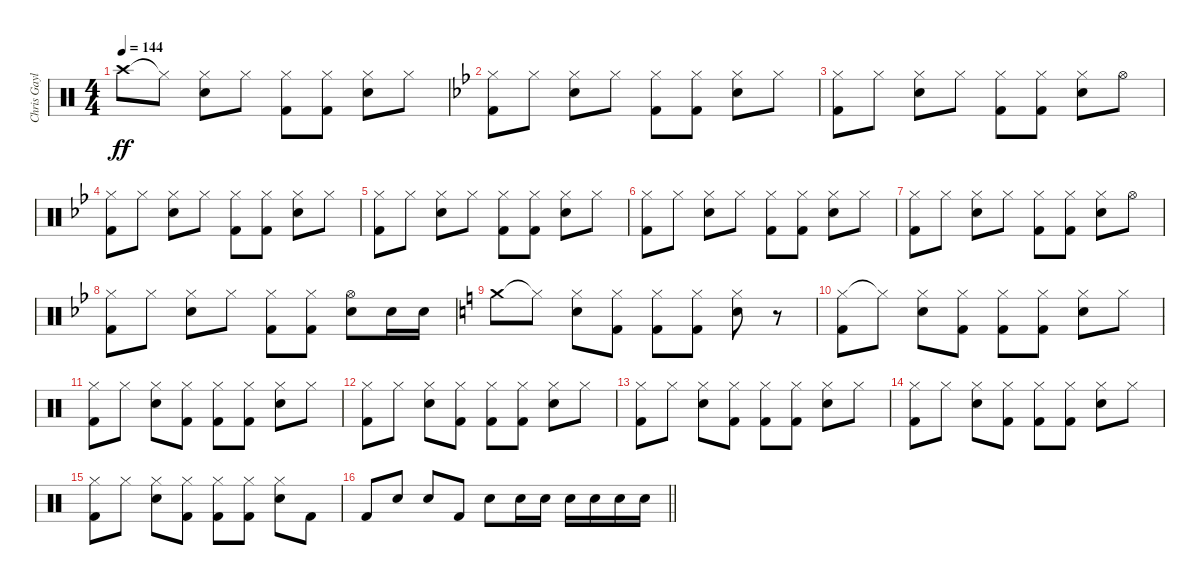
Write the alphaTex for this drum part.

\track ("Chris Gaylor" "Chris Gayl") {instrument percussion}
\staff {score}
\articulation defaults
\ts (4 4)
\tempo 144
\clef neutral
\ks c "Crash high (hit)".8{dy ff} "Hi-Hat (closed)"{t}.8
("Hi-Hat (closed)" "Snare (hit) 2").8 "Hi-Hat (closed)".8 ("Hi-Hat (closed)" "Kick (hit) 2").8 ("Hi-Hat (closed)" "Kick (hit) 2").8 ("Hi-Hat (closed)" "Snare (hit) 2").8 "Hi-Hat (closed)".8 |
\ks bb
("Hi-Hat (closed)" "Kick (hit) 2").8 "Hi-Hat (closed)".8 ("Hi-Hat (closed)" "Snare (hit) 2").8 "Hi-Hat (closed)".8 ("Hi-Hat (closed)" "Kick (hit) 2").8 ("Hi-Hat (closed)" "Kick (hit) 2").8 ("Hi-Hat (closed)" "Snare (hit) 2").8 "Hi-Hat (closed)".8 |
("Hi-Hat (closed)" "Kick (hit) 2").8 "Hi-Hat (closed)".8 ("Hi-Hat (closed)" "Snare (hit) 2").8 "Hi-Hat (closed)".8 ("Hi-Hat (closed)" "Kick (hit) 2").8 ("Hi-Hat (closed)" "Kick (hit) 2").8 ("Hi-Hat (closed)" "Snare (hit) 2").8 "Hi-Hat (open)".8 |
("Hi-Hat (closed)" "Kick (hit) 2").8 "Hi-Hat (closed)".8 ("Hi-Hat (closed)" "Snare (hit) 2").8 "Hi-Hat (closed)".8 ("Hi-Hat (closed)" "Kick (hit) 2").8 ("Hi-Hat (closed)" "Kick (hit) 2").8 ("Hi-Hat (closed)" "Snare (hit) 2").8 "Hi-Hat (closed)".8 |
("Hi-Hat (closed)" "Kick (hit) 2").8 "Hi-Hat (closed)".8 ("Hi-Hat (closed)" "Snare (hit) 2").8 "Hi-Hat (closed)".8 ("Hi-Hat (closed)" "Kick (hit) 2").8 ("Hi-Hat (closed)" "Kick (hit) 2").8 ("Hi-Hat (closed)" "Snare (hit) 2").8 "Hi-Hat (closed)".8 |
("Hi-Hat (closed)" "Kick (hit) 2").8 "Hi-Hat (closed)".8 ("Hi-Hat (closed)" "Snare (hit) 2").8 "Hi-Hat (closed)".8 ("Hi-Hat (closed)" "Kick (hit) 2").8 ("Hi-Hat (closed)" "Kick (hit) 2").8 ("Hi-Hat (closed)" "Snare (hit) 2").8 "Hi-Hat (closed)".8 |
("Hi-Hat (closed)" "Kick (hit) 2").8 "Hi-Hat (closed)".8 ("Hi-Hat (closed)" "Snare (hit) 2").8 "Hi-Hat (closed)".8 ("Hi-Hat (closed)" "Kick (hit) 2").8 ("Hi-Hat (closed)" "Kick (hit) 2").8 ("Hi-Hat (closed)" "Snare (hit) 2").8 "Hi-Hat (open)".8 |
("Hi-Hat (closed)" "Kick (hit) 2").8 "Hi-Hat (closed)".8 ("Hi-Hat (closed)" "Snare (hit) 2").8 "Hi-Hat (closed)".8 ("Hi-Hat (closed)" "Kick (hit) 2").8 ("Hi-Hat (closed)" "Kick (hit) 2").8 ("Hi-Hat (open)" "Snare (hit) 2").8 "Electric Snare (hit)".16 "Electric Snare (hit)".16 |
\ks c "Crash medium (hit)".8 "Hi-Hat (closed)"{t}.8
("Hi-Hat (closed)" "Snare (hit) 2").8 ("Hi-Hat (closed)" "Kick (hit) 2").8 ("Hi-Hat (closed)" "Kick (hit) 2").8 ("Hi-Hat (closed)" "Kick (hit) 2").8 ("Hi-Hat (closed)" "Snare (hit) 2").8 r.8 |
("Hi-Hat (closed)" "Kick (hit) 2").8 "Hi-Hat (closed)"{t}.8 ("Hi-Hat (closed)" "Snare (hit) 2").8 ("Hi-Hat (closed)" "Kick (hit) 2").8 ("Hi-Hat (closed)" "Kick (hit) 2").8 ("Hi-Hat (closed)" "Kick (hit) 2").8 ("Hi-Hat (closed)" "Snare (hit) 2").8 "Hi-Hat (closed)".8 |
("Hi-Hat (closed)" "Kick (hit) 2").8 "Hi-Hat (closed)".8 ("Hi-Hat (closed)" "Snare (hit) 2").8 ("Hi-Hat (closed)" "Kick (hit) 2").8 ("Hi-Hat (closed)" "Kick (hit) 2").8 ("Hi-Hat (closed)" "Kick (hit) 2").8 ("Hi-Hat (closed)" "Snare (hit) 2").8 "Hi-Hat (closed)".8 |
("Hi-Hat (closed)" "Kick (hit) 2").8 "Hi-Hat (closed)".8 ("Hi-Hat (closed)" "Snare (hit) 2").8 ("Hi-Hat (closed)" "Kick (hit) 2").8 ("Hi-Hat (closed)" "Kick (hit) 2").8 ("Hi-Hat (closed)" "Kick (hit) 2").8 ("Hi-Hat (closed)" "Snare (hit) 2").8 "Hi-Hat (closed)".8 |
("Hi-Hat (closed)" "Kick (hit) 2").8 "Hi-Hat (closed)".8 ("Hi-Hat (closed)" "Snare (hit) 2").8 ("Hi-Hat (closed)" "Kick (hit) 2").8 ("Hi-Hat (closed)" "Kick (hit) 2").8 ("Hi-Hat (closed)" "Kick (hit) 2").8 ("Hi-Hat (closed)" "Snare (hit) 2").8 "Hi-Hat (closed)".8 |
("Hi-Hat (closed)" "Kick (hit) 2").8 "Hi-Hat (closed)".8 ("Hi-Hat (closed)" "Snare (hit) 2").8 ("Hi-Hat (closed)" "Kick (hit) 2").8 ("Hi-Hat (closed)" "Kick (hit) 2").8 ("Hi-Hat (closed)" "Kick (hit) 2").8 ("Hi-Hat (closed)" "Snare (hit) 2").8 "Hi-Hat (closed)".8 |
("Hi-Hat (closed)" "Kick (hit) 2").8 "Hi-Hat (closed)".8 ("Hi-Hat (closed)" "Snare (hit) 2").8 ("Hi-Hat (closed)" "Kick (hit) 2").8 ("Hi-Hat (closed)" "Kick (hit) 2").8 ("Hi-Hat (closed)" "Kick (hit) 2").8 ("Hi-Hat (closed)" "Snare (hit) 2").8 "Kick (hit) 2".8 |
\barLineRight lightlight "Kick (hit) 2".8 "Snare (hit) 2".8 "Snare (hit) 2".8 "Kick (hit) 2".8 "Snare (hit) 2".8 "Snare (hit) 2".16 "Snare (hit) 2".16 "Snare (hit) 2".16 "Snare (hit) 2".16 "Snare (hit) 2".16 "Snare (hit) 2".16
